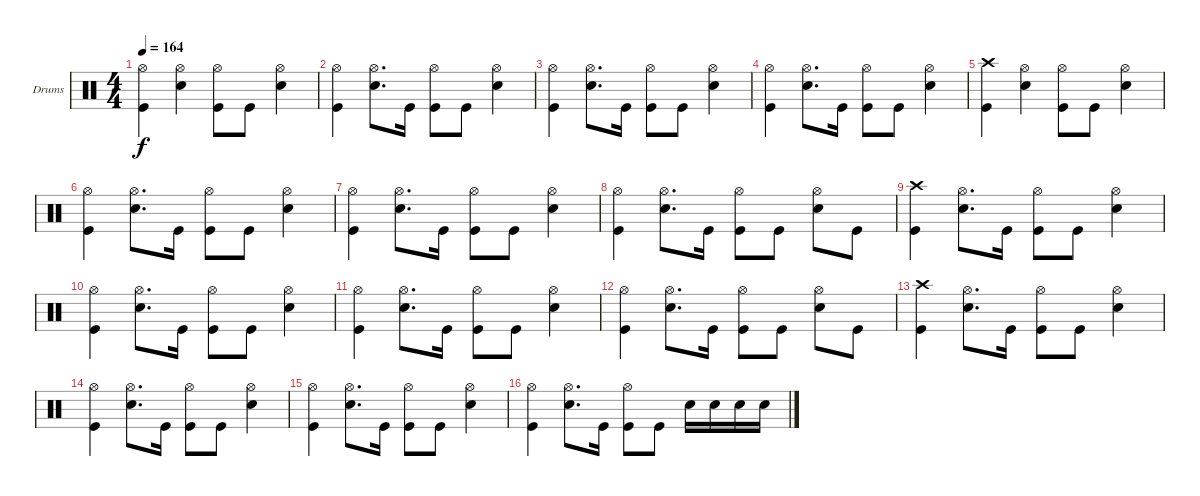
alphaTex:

\defaultSystemsLayout 4
\bracketExtendMode groupsimilarinstruments
\firstSystemTrackNameOrientation horizontal
\otherSystemsTrackNameOrientation horizontal
\track ("Drumkit" "Drums") {instrument percussion}
\staff {score}
\articulation defaults
\ts (4 4)
\tempo 164
\clef neutral
\ks c
("Kick (hit)" "Hi-Hat (open)").4{dy f} ("Hi-Hat (open)" "Snare (hit) 2").4 ("Hi-Hat (open)" "Kick (hit)").8 "Kick (hit)".8 ("Snare (hit) 2" "Hi-Hat (open)").4 |
("Kick (hit)" "Hi-Hat (open)").4 ("Hi-Hat (open)" "Snare (hit) 2").8{d} "Kick (hit)".16 ("Hi-Hat (open)" "Kick (hit)").8 "Kick (hit)".8 ("Snare (hit) 2" "Hi-Hat (open)").4 |
("Kick (hit)" "Hi-Hat (open)").4 ("Hi-Hat (open)" "Snare (hit) 2").8{d} "Kick (hit)".16 ("Hi-Hat (open)" "Kick (hit)").8 "Kick (hit)".8 ("Snare (hit) 2" "Hi-Hat (open)").4 |
("Kick (hit)" "Hi-Hat (open)").4 ("Hi-Hat (open)" "Snare (hit) 2").8{d} "Kick (hit)".16 ("Hi-Hat (open)" "Kick (hit)").8 "Kick (hit)".8 ("Snare (hit) 2" "Hi-Hat (open)").4 |
("Kick (hit)" "Crash high (hit)").4 ("Hi-Hat (open)" "Snare (hit) 2").4 ("Hi-Hat (open)" "Kick (hit)").8 "Kick (hit)".8 ("Snare (hit) 2" "Hi-Hat (open)").4 |
("Kick (hit)" "Hi-Hat (open)").4 ("Hi-Hat (open)" "Snare (hit) 2").8{d} "Kick (hit)".16 ("Hi-Hat (open)" "Kick (hit)").8 "Kick (hit)".8 ("Snare (hit) 2" "Hi-Hat (open)").4 |
("Kick (hit)" "Hi-Hat (open)").4 ("Hi-Hat (open)" "Snare (hit) 2").8{d} "Kick (hit)".16 ("Hi-Hat (open)" "Kick (hit)").8 "Kick (hit)".8 ("Snare (hit) 2" "Hi-Hat (open)").4 |
("Kick (hit)" "Hi-Hat (open)").4 ("Hi-Hat (open)" "Snare (hit) 2").8{d} "Kick (hit)".16 ("Hi-Hat (open)" "Kick (hit)").8 "Kick (hit)".8 ("Snare (hit) 2" "Hi-Hat (open)").8 "Kick (hit)".8 |
("Kick (hit)" "Crash high (hit)").4 ("Hi-Hat (open)" "Snare (hit) 2").8{d} "Kick (hit)".16 ("Hi-Hat (open)" "Kick (hit)").8 "Kick (hit)".8 ("Snare (hit) 2" "Hi-Hat (open)").4 |
("Kick (hit)" "Hi-Hat (open)").4 ("Hi-Hat (open)" "Snare (hit) 2").8{d} "Kick (hit)".16 ("Hi-Hat (open)" "Kick (hit)").8 "Kick (hit)".8 ("Snare (hit) 2" "Hi-Hat (open)").4 |
("Kick (hit)" "Hi-Hat (open)").4 ("Hi-Hat (open)" "Snare (hit) 2").8{d} "Kick (hit)".16 ("Hi-Hat (open)" "Kick (hit)").8 "Kick (hit)".8 ("Snare (hit) 2" "Hi-Hat (open)").4 |
("Kick (hit)" "Hi-Hat (open)").4 ("Hi-Hat (open)" "Snare (hit) 2").8{d} "Kick (hit)".16 ("Hi-Hat (open)" "Kick (hit)").8 "Kick (hit)".8 ("Snare (hit) 2" "Hi-Hat (open)").8 "Kick (hit)".8 |
("Kick (hit)" "Crash high (hit)").4 ("Hi-Hat (open)" "Snare (hit) 2").8{d} "Kick (hit)".16 ("Hi-Hat (open)" "Kick (hit)").8 "Kick (hit)".8 ("Snare (hit) 2" "Hi-Hat (open)").4 |
("Kick (hit)" "Hi-Hat (open)").4 ("Hi-Hat (open)" "Snare (hit) 2").8{d} "Kick (hit)".16 ("Hi-Hat (open)" "Kick (hit)").8 "Kick (hit)".8 ("Snare (hit) 2" "Hi-Hat (open)").4 |
("Kick (hit)" "Hi-Hat (open)").4 ("Hi-Hat (open)" "Snare (hit) 2").8{d} "Kick (hit)".16 ("Hi-Hat (open)" "Kick (hit)").8 "Kick (hit)".8 ("Snare (hit) 2" "Hi-Hat (open)").4 |
("Kick (hit)" "Hi-Hat (open)").4 ("Hi-Hat (open)" "Snare (hit) 2").8{d} "Kick (hit)".16 ("Hi-Hat (open)" "Kick (hit)").8 "Kick (hit)".8 "Snare (hit) 2".16 "Snare (hit) 2".16 "Snare (hit) 2".16 "Snare (hit) 2".16
